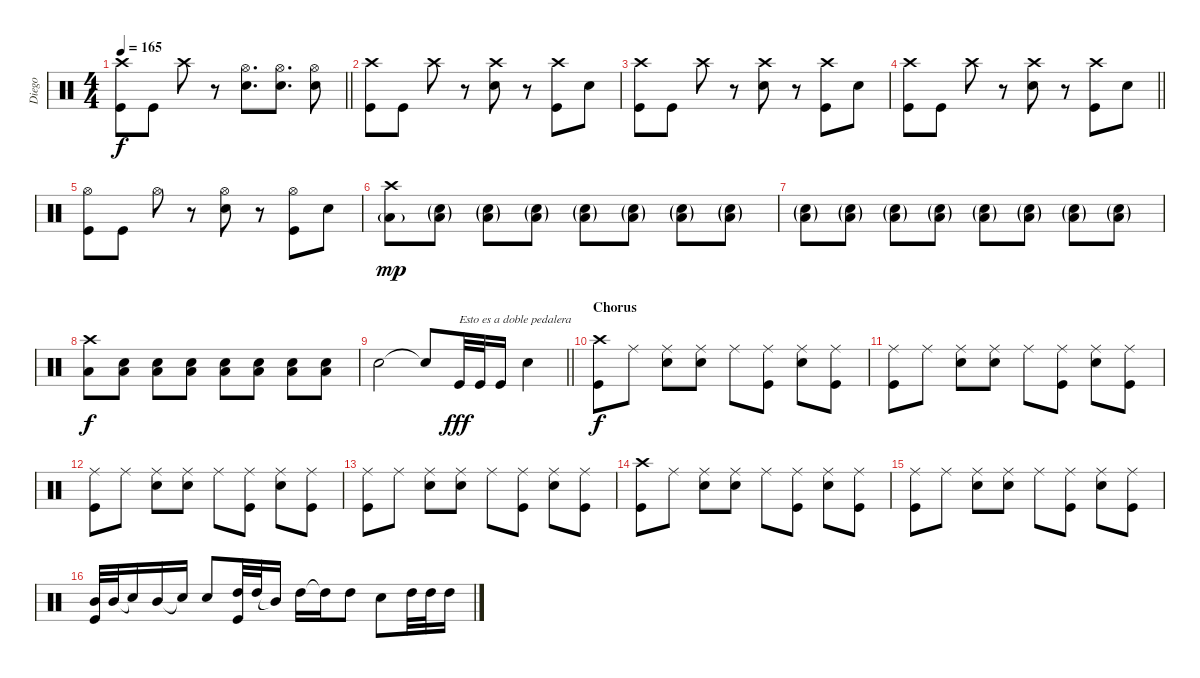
\track ("Diego" "Diego") {instrument percussion}
\staff {score}
\articulation defaults
\ts (4 4)
\tempo 165
\clef neutral
\barLineRight lightlight
\ks c
("Crash high (hit)" "Kick (hit)").8{dy f} "Kick (hit)".8 "Crash high (hit)".8 r.8 ("Hi-Hat (open)" "Snare (hit) 2").8{d} ("Hi-Hat (open)" "Snare (hit) 2").8{d} ("Hi-Hat (open)" "Snare (hit) 2").8 |
("Crash high (hit)" "Kick (hit)").8 "Kick (hit)".8 "Crash high (hit)".8 r.8 ("Crash high (hit)" "Snare (hit) 2").8 r.8 ("Crash high (hit)" "Kick (hit)").8 "Snare (hit) 2".8 |
("Crash high (hit)" "Kick (hit)").8 "Kick (hit)".8 "Crash high (hit)".8 r.8 ("Crash high (hit)" "Snare (hit) 2").8 r.8 ("Crash high (hit)" "Kick (hit)").8 "Snare (hit) 2".8 |
\barLineRight lightlight
("Crash high (hit)" "Kick (hit)").8 "Kick (hit)".8 "Crash high (hit)".8 r.8 ("Crash high (hit)" "Snare (hit) 2").8 r.8 ("Crash high (hit)" "Kick (hit)").8 "Snare (hit) 2".8 |
("Hi-Hat (open)" "Kick (hit)").8 "Kick (hit)".8 "Hi-Hat (open)".8 r.8 ("Hi-Hat (open)" "Snare (hit) 2").8 r.8 ("Hi-Hat (open)" "Kick (hit)").8 "Snare (hit) 2".8 |
("Crash high (hit)" "Low Floor Tom (hit)"{g}).8{dy mp} ("Snare (hit) 2"{g} "Low Floor Tom (hit)"{g}).8 ("Snare (hit) 2"{g} "Low Floor Tom (hit)"{g}).8 ("Snare (hit) 2"{g} "Low Floor Tom (hit)"{g}).8 ("Snare (hit) 2"{g} "Low Floor Tom (hit)"{g}).8 ("Snare (hit) 2"{g} "Low Floor Tom (hit)"{g}).8 ("Snare (hit) 2"{g} "Low Floor Tom (hit)"{g}).8 ("Snare (hit) 2"{g} "Low Floor Tom (hit)"{g}).8 |
("Snare (hit) 2"{g} "Low Floor Tom (hit)"{g}).8 ("Snare (hit) 2"{g} "Low Floor Tom (hit)"{g}).8 ("Snare (hit) 2"{g} "Low Floor Tom (hit)"{g}).8 ("Snare (hit) 2"{g} "Low Floor Tom (hit)"{g}).8 ("Snare (hit) 2"{g} "Low Floor Tom (hit)"{g}).8 ("Snare (hit) 2"{g} "Low Floor Tom (hit)"{g}).8 ("Snare (hit) 2"{g} "Low Floor Tom (hit)"{g}).8 ("Snare (hit) 2"{g} "Low Floor Tom (hit)"{g}).8 |
("Crash high (hit)" "Low Floor Tom (hit)").8{dy f} ("Snare (hit) 2" "Low Floor Tom (hit)").8 ("Snare (hit) 2" "Low Floor Tom (hit)").8 ("Snare (hit) 2" "Low Floor Tom (hit)").8 ("Snare (hit) 2" "Low Floor Tom (hit)").8 ("Snare (hit) 2" "Low Floor Tom (hit)").8 ("Snare (hit) 2" "Low Floor Tom (hit)").8 ("Snare (hit) 2" "Low Floor Tom (hit)").8 |
\barLineRight lightlight "Snare (hit) 2".2 "Snare (hit)"{t}.8 "Kick (hit)".32{txt "Esto es a doble pedalera" dy fff} "Kick (hit)".32 "Kick (hit)".16 "Snare (hit) 2".4
|
\section ("" "Chorus")
("Crash high (hit)" "Kick (hit)").8{dy f} "Ride (middle)".8 ("Ride (middle)" "Snare (hit) 2").8 ("Ride (middle)" "Snare (hit) 2").8 "Ride (middle)".8 ("Ride (middle)" "Kick (hit)").8 ("Ride (middle)" "Snare (hit) 2").8 ("Ride (middle)" "Kick (hit)").8 |
("Ride (middle)" "Kick (hit)").8 "Ride (middle)".8 ("Ride (middle)" "Snare (hit) 2").8 ("Ride (middle)" "Snare (hit) 2").8 "Ride (middle)".8 ("Ride (middle)" "Kick (hit)").8 ("Ride (middle)" "Snare (hit) 2").8 ("Ride (middle)" "Kick (hit)").8 |
("Ride (middle)" "Kick (hit)").8 "Ride (middle)".8 ("Ride (middle)" "Snare (hit) 2").8 ("Ride (middle)" "Snare (hit) 2").8 "Ride (middle)".8 ("Ride (middle)" "Kick (hit)").8 ("Ride (middle)" "Snare (hit) 2").8 ("Ride (middle)" "Kick (hit)").8 |
("Ride (middle)" "Kick (hit)").8 "Ride (middle)".8 ("Ride (middle)" "Snare (hit) 2").8 ("Ride (middle)" "Snare (hit) 2").8 "Ride (middle)".8 ("Ride (middle)" "Kick (hit)").8 ("Ride (middle)" "Snare (hit) 2").8 ("Ride (middle)" "Kick (hit)").8 |
("Crash high (hit)" "Kick (hit)").8 "Ride (middle)".8 ("Ride (middle)" "Snare (hit) 2").8 ("Ride (middle)" "Snare (hit) 2").8 "Ride (middle)".8 ("Ride (middle)" "Kick (hit)").8 ("Ride (middle)" "Snare (hit) 2").8 ("Ride (middle)" "Kick (hit)").8 |
("Ride (middle)" "Kick (hit)").8 "Ride (middle)".8 ("Ride (middle)" "Snare (hit) 2").8 ("Ride (middle)" "Snare (hit) 2").8 "Ride (middle)".8 ("Ride (middle)" "Kick (hit)").8 ("Ride (middle)" "Snare (hit) 2").8 ("Ride (middle)" "Kick (hit)").8 |
("Mid Tom (hit)" "Kick (hit)").32 "Mid Tom (hit)".32 "Snare (hit)"{t}.16 "Mid Tom (hit)".16 "Snare (hit) 2"{t}.16 "Snare (hit) 2".8 ("High Tom (hit)" "Kick (hit)").32 "High Tom (hit)".32 "Mid Tom (hit)"{t}.16 "High Tom (hit)".16 "High Tom (hit)"{t}.16 "High Tom (hit)".8 "Snare (hit) 2".8 "High Tom (hit)".32 "High Tom (hit)".32 "High Tom (hit)".16
